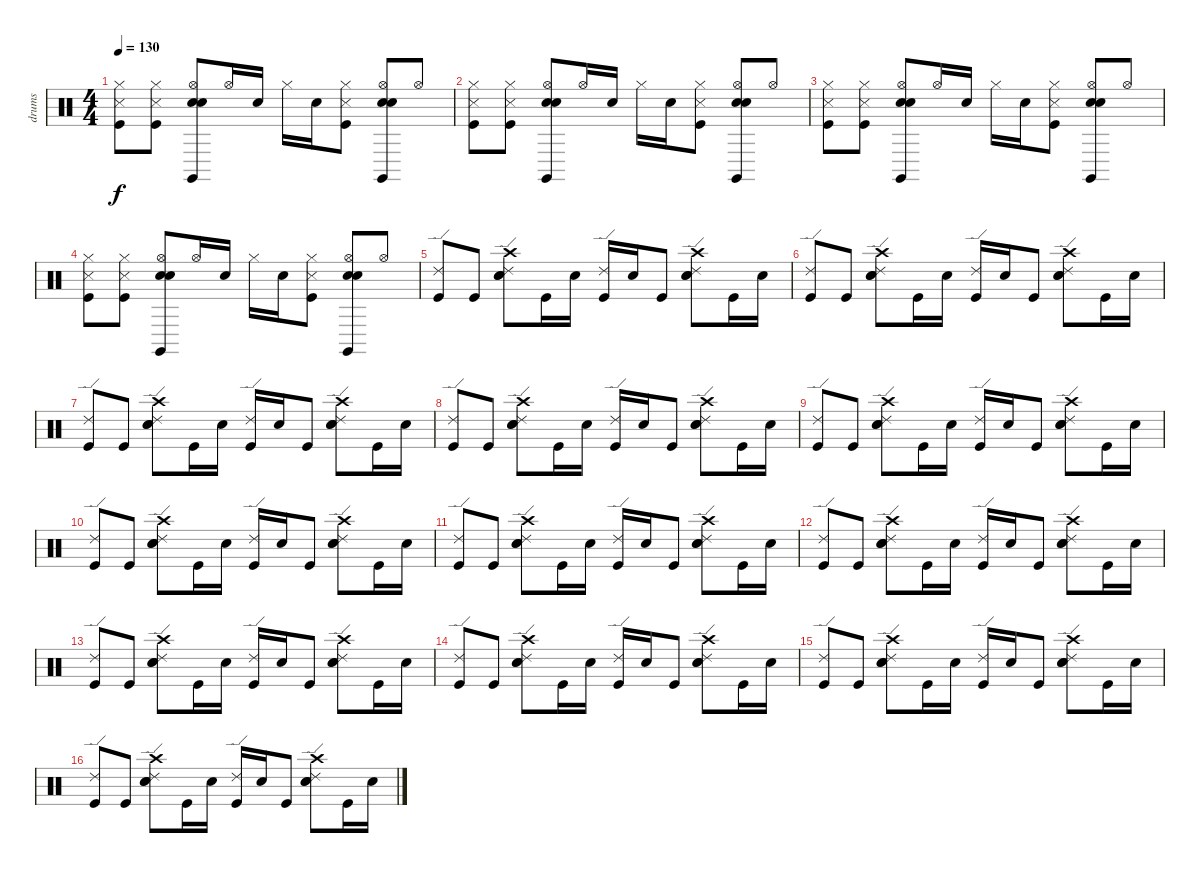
\track ("drums" "drums") {instrument percussion}
\staff {score}
\articulation defaults
\ts (4 4)
\tempo 130
\clef neutral
\ks c
("Metronome (hit)" "Kick (hit)" "Hi-Hat (closed)").8{dy f} ("Hi-Hat (closed)" "Kick (hit)" "Metronome (hit)").8 ("Hi-Hat (open)" "Electric Snare (hit)" "Snare (hit) 2" "Claves (hit)").8 "Hi-Hat (open)".16 "Snare (hit) 2".16 "Hi-Hat (closed)".16 "Snare (hit) 2".16 ("Hi-Hat (closed)" "Metronome (hit)" "Kick (hit)").8 ("Hi-Hat (open)" "Snare (hit) 2" "Electric Snare (hit)" "Claves (hit)").8 "Hi-Hat (open)".8 |
("Metronome (hit)" "Kick (hit)" "Hi-Hat (closed)").8 ("Hi-Hat (closed)" "Kick (hit)" "Metronome (hit)").8 ("Hi-Hat (open)" "Electric Snare (hit)" "Snare (hit) 2" "Claves (hit)").8 "Hi-Hat (open)".16 "Snare (hit) 2".16 "Hi-Hat (closed)".16 "Snare (hit) 2".16 ("Hi-Hat (closed)" "Metronome (hit)" "Kick (hit)").8 ("Hi-Hat (open)" "Snare (hit) 2" "Electric Snare (hit)" "Claves (hit)").8 "Hi-Hat (open)".8 |
("Metronome (hit)" "Kick (hit)" "Hi-Hat (closed)").8 ("Hi-Hat (closed)" "Kick (hit)" "Metronome (hit)").8 ("Hi-Hat (open)" "Electric Snare (hit)" "Snare (hit) 2" "Claves (hit)").8 "Hi-Hat (open)".16 "Snare (hit) 2".16 "Hi-Hat (closed)".16 "Snare (hit) 2".16 ("Hi-Hat (closed)" "Metronome (hit)" "Kick (hit)").8 ("Hi-Hat (open)" "Snare (hit) 2" "Electric Snare (hit)" "Claves (hit)").8 "Hi-Hat (open)".8 |
("Metronome (hit)" "Kick (hit)" "Hi-Hat (closed)").8 ("Hi-Hat (closed)" "Kick (hit)" "Metronome (hit)").8 ("Hi-Hat (open)" "Electric Snare (hit)" "Snare (hit) 2" "Claves (hit)").8 "Hi-Hat (open)".16 "Snare (hit) 2".16 "Hi-Hat (closed)".16 "Snare (hit) 2".16 ("Hi-Hat (closed)" "Metronome (hit)" "Kick (hit)").8 ("Hi-Hat (open)" "Snare (hit) 2" "Electric Snare (hit)" "Claves (hit)").8 "Hi-Hat (open)".8 |
("Ride (edge) 2" "Kick (hit)").8 "Kick (hit)".8 ("Electric Snare (hit)" "Snare (hit) 2" "Crash high (hit)" "Ride (edge) 2").8 "Kick (hit)".16 "Snare (hit) 2".16 ("Kick (hit)" "Ride (edge) 2").16 "Snare (hit) 2".16 "Kick (hit)".8 ("Snare (hit) 2" "Electric Snare (hit)" "Crash high (hit)" "Ride (edge) 2").8 "Kick (hit)".16 "Snare (hit) 2".16 |
("Ride (edge) 2" "Kick (hit)").8 "Kick (hit)".8 ("Electric Snare (hit)" "Snare (hit) 2" "Crash high (hit)" "Ride (edge) 2").8 "Kick (hit)".16 "Snare (hit) 2".16 ("Kick (hit)" "Ride (edge) 2").16 "Snare (hit) 2".16 "Kick (hit)".8 ("Snare (hit) 2" "Electric Snare (hit)" "Crash high (hit)" "Ride (edge) 2").8 "Kick (hit)".16 "Snare (hit) 2".16 |
("Ride (edge) 2" "Kick (hit)").8 "Kick (hit)".8 ("Electric Snare (hit)" "Snare (hit) 2" "Crash high (hit)" "Ride (edge) 2").8 "Kick (hit)".16 "Snare (hit) 2".16 ("Kick (hit)" "Ride (edge) 2").16 "Snare (hit) 2".16 "Kick (hit)".8 ("Snare (hit) 2" "Electric Snare (hit)" "Crash high (hit)" "Ride (edge) 2").8 "Kick (hit)".16 "Snare (hit) 2".16 |
("Ride (edge) 2" "Kick (hit)").8 "Kick (hit)".8 ("Electric Snare (hit)" "Snare (hit) 2" "Crash high (hit)" "Ride (edge) 2").8 "Kick (hit)".16 "Snare (hit) 2".16 ("Kick (hit)" "Ride (edge) 2").16 "Snare (hit) 2".16 "Kick (hit)".8 ("Snare (hit) 2" "Electric Snare (hit)" "Crash high (hit)" "Ride (edge) 2").8 "Kick (hit)".16 "Snare (hit) 2".16 |
("Kick (hit)" "Ride (edge) 2").8 "Kick (hit)".8 ("Electric Snare (hit)" "Snare (hit) 2" "Crash high (hit)" "Ride (edge) 2").8 "Kick (hit)".16 "Snare (hit) 2".16 ("Kick (hit)" "Ride (edge) 2").16 "Snare (hit) 2".16 "Kick (hit)".8 ("Snare (hit) 2" "Electric Snare (hit)" "Crash high (hit)" "Ride (edge) 2").8 "Kick (hit)".16 "Snare (hit) 2".16 |
("Kick (hit)" "Ride (edge) 2").8 "Kick (hit)".8 ("Electric Snare (hit)" "Snare (hit) 2" "Crash high (hit)" "Ride (edge) 2").8 "Kick (hit)".16 "Snare (hit) 2".16 ("Kick (hit)" "Ride (edge) 2").16 "Snare (hit) 2".16 "Kick (hit)".8 ("Snare (hit) 2" "Electric Snare (hit)" "Crash high (hit)" "Ride (edge) 2").8 "Kick (hit)".16 "Snare (hit) 2".16 |
("Kick (hit)" "Ride (edge) 2").8 "Kick (hit)".8 ("Electric Snare (hit)" "Snare (hit) 2" "Crash high (hit)" "Ride (edge) 2").8 "Kick (hit)".16 "Snare (hit) 2".16 ("Kick (hit)" "Ride (edge) 2").16 "Snare (hit) 2".16 "Kick (hit)".8 ("Snare (hit) 2" "Electric Snare (hit)" "Crash high (hit)" "Ride (edge) 2").8 "Kick (hit)".16 "Snare (hit) 2".16 |
("Kick (hit)" "Ride (edge) 2").8 "Kick (hit)".8 ("Electric Snare (hit)" "Snare (hit) 2" "Crash high (hit)" "Ride (edge) 2").8 "Kick (hit)".16 "Snare (hit) 2".16 ("Kick (hit)" "Ride (edge) 2").16 "Snare (hit) 2".16 "Kick (hit)".8 ("Snare (hit) 2" "Electric Snare (hit)" "Crash high (hit)" "Ride (edge) 2").8 "Kick (hit)".16 "Snare (hit) 2".16 |
("Kick (hit)" "Ride (edge) 2").8 "Kick (hit)".8 ("Electric Snare (hit)" "Snare (hit) 2" "Crash high (hit)" "Ride (edge) 2").8 "Kick (hit)".16 "Snare (hit) 2".16 ("Kick (hit)" "Ride (edge) 2").16 "Snare (hit) 2".16 "Kick (hit)".8 ("Snare (hit) 2" "Electric Snare (hit)" "Crash high (hit)" "Ride (edge) 2").8 "Kick (hit)".16 "Snare (hit) 2".16 |
("Kick (hit)" "Ride (edge) 2").8 "Kick (hit)".8 ("Electric Snare (hit)" "Snare (hit) 2" "Crash high (hit)" "Ride (edge) 2").8 "Kick (hit)".16 "Snare (hit) 2".16 ("Kick (hit)" "Ride (edge) 2").16 "Snare (hit) 2".16 "Kick (hit)".8 ("Snare (hit) 2" "Electric Snare (hit)" "Crash high (hit)" "Ride (edge) 2").8 "Kick (hit)".16 "Snare (hit) 2".16 |
("Kick (hit)" "Ride (edge) 2").8 "Kick (hit)".8 ("Electric Snare (hit)" "Snare (hit) 2" "Crash high (hit)" "Ride (edge) 2").8 "Kick (hit)".16 "Snare (hit) 2".16 ("Kick (hit)" "Ride (edge) 2").16 "Snare (hit) 2".16 "Kick (hit)".8 ("Snare (hit) 2" "Electric Snare (hit)" "Crash high (hit)" "Ride (edge) 2").8 "Kick (hit)".16 "Snare (hit) 2".16 |
("Kick (hit)" "Ride (edge) 2").8 "Kick (hit)".8 ("Electric Snare (hit)" "Snare (hit) 2" "Crash high (hit)" "Ride (edge) 2").8 "Kick (hit)".16 "Snare (hit) 2".16 ("Kick (hit)" "Ride (edge) 2").16 "Snare (hit) 2".16 "Kick (hit)".8 ("Snare (hit) 2" "Electric Snare (hit)" "Crash high (hit)" "Ride (edge) 2").8 "Kick (hit)".16 "Snare (hit) 2".16
